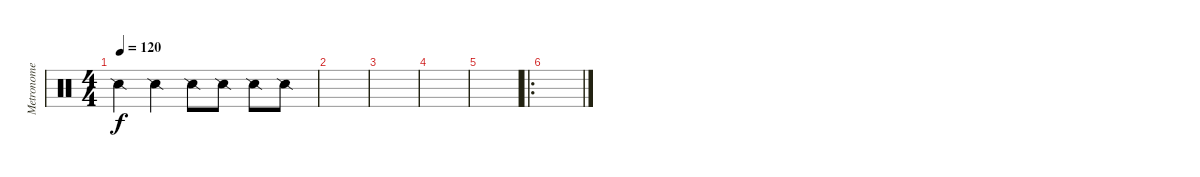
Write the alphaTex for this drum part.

\track ("Metronome" "Metronome") {instrument percussion}
\staff {score}
\articulation defaults
\ts (4 4)
\tempo 120
\clef neutral
\ks c "Snare (side stick) 2".4{dy f} "Snare (side stick) 2".4 "Snare (side stick) 2".8 "Snare (side stick) 2".8 "Snare (side stick) 2".8 "Snare (side stick) 2".8
|
|
|
|
|
\ro
